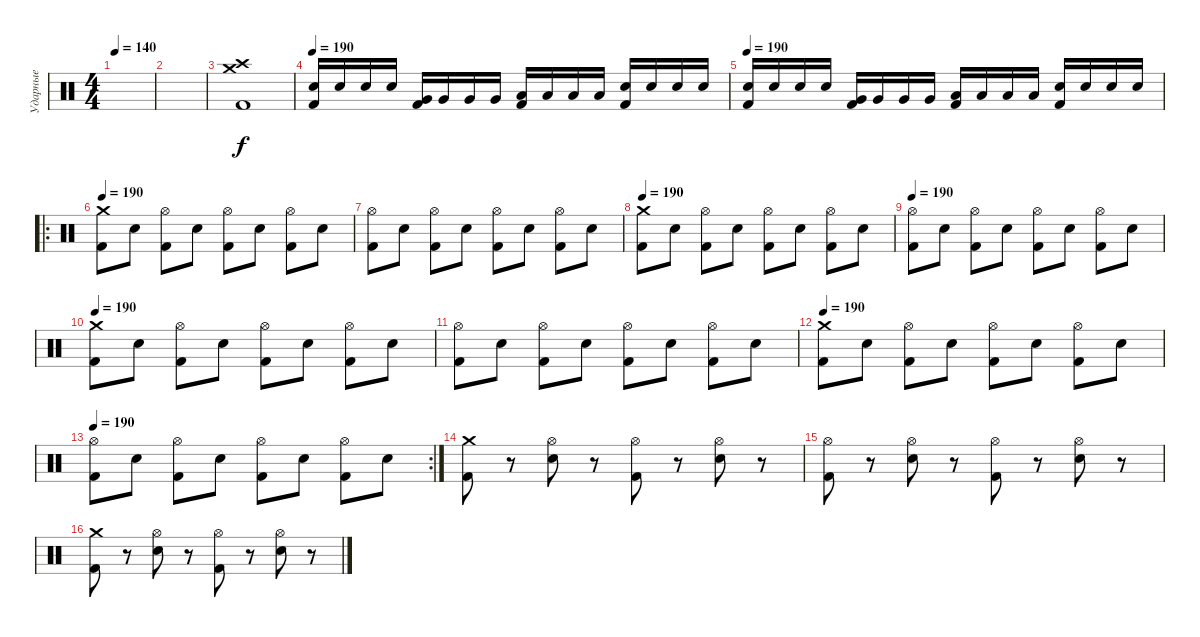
\track ("Ударные" "Ударные") {instrument percussion}
\staff {score}
\articulation defaults
\ts (4 4)
\tempo 140
\clef neutral
\ks c
|
|
("Crash high (hit)" "Crash medium (hit)" "Kick (hit) 2").1 |
\tempo 190
("Electric Snare (hit)" "Kick (hit) 2").16 "Electric Snare (hit)".16 "Electric Snare (hit)".16 "Electric Snare (hit)".16 ("Very Low Tom (hit)" "Kick (hit) 2").16 "Very Low Tom (hit)".16 "Very Low Tom (hit)".16 "Very Low Tom (hit)".16 ("Low Tom (hit)" "Kick (hit) 2").16 "Low Tom (hit)".16 "Low Tom (hit)".16 "Low Tom (hit)".16 ("Electric Snare (hit)" "Kick (hit) 2").16 "Electric Snare (hit)".16 "Electric Snare (hit)".16 "Electric Snare (hit)".16 |
\tempo 190
("Electric Snare (hit)" "Kick (hit) 2").16 "Electric Snare (hit)".16 "Electric Snare (hit)".16 "Electric Snare (hit)".16 ("Very Low Tom (hit)" "Kick (hit) 2").16 "Very Low Tom (hit)".16 "Very Low Tom (hit)".16 "Very Low Tom (hit)".16 ("Low Tom (hit)" "Kick (hit) 2").16 "Low Tom (hit)".16 "Low Tom (hit)".16 "Low Tom (hit)".16 ("Electric Snare (hit)" "Kick (hit) 2").16 "Electric Snare (hit)".16 "Electric Snare (hit)".16 "Electric Snare (hit)".16 |
\ro
\tempo 190
("Crash medium (hit)" "Kick (hit) 2").8 "Electric Snare (hit)".8 ("Hi-Hat (open)" "Kick (hit) 2").8 "Electric Snare (hit)".8 ("Hi-Hat (open)" "Kick (hit) 2").8 "Electric Snare (hit)".8 ("Hi-Hat (open)" "Kick (hit) 2").8 "Electric Snare (hit)".8 |
("Hi-Hat (open)" "Kick (hit) 2").8 "Electric Snare (hit)".8 ("Hi-Hat (open)" "Kick (hit) 2").8 "Electric Snare (hit)".8 ("Hi-Hat (open)" "Kick (hit) 2").8 "Electric Snare (hit)".8 ("Hi-Hat (open)" "Kick (hit) 2").8 "Electric Snare (hit)".8 |
\tempo 190
("Crash medium (hit)" "Kick (hit) 2").8 "Electric Snare (hit)".8 ("Hi-Hat (open)" "Kick (hit) 2").8 "Electric Snare (hit)".8 ("Hi-Hat (open)" "Kick (hit) 2").8 "Electric Snare (hit)".8 ("Hi-Hat (open)" "Kick (hit) 2").8 "Electric Snare (hit)".8 |
\tempo 190
("Hi-Hat (open)" "Kick (hit) 2").8 "Electric Snare (hit)".8 ("Hi-Hat (open)" "Kick (hit) 2").8 "Electric Snare (hit)".8 ("Hi-Hat (open)" "Kick (hit) 2").8 "Electric Snare (hit)".8 ("Hi-Hat (open)" "Kick (hit) 2").8 "Electric Snare (hit)".8 |
\tempo 190
("Crash medium (hit)" "Kick (hit) 2").8 "Electric Snare (hit)".8 ("Hi-Hat (open)" "Kick (hit) 2").8 "Electric Snare (hit)".8 ("Hi-Hat (open)" "Kick (hit) 2").8 "Electric Snare (hit)".8 ("Hi-Hat (open)" "Kick (hit) 2").8 "Electric Snare (hit)".8 |
("Hi-Hat (open)" "Kick (hit) 2").8 "Electric Snare (hit)".8 ("Hi-Hat (open)" "Kick (hit) 2").8 "Electric Snare (hit)".8 ("Hi-Hat (open)" "Kick (hit) 2").8 "Electric Snare (hit)".8 ("Hi-Hat (open)" "Kick (hit) 2").8 "Electric Snare (hit)".8 |
\tempo 190
("Crash medium (hit)" "Kick (hit) 2").8 "Electric Snare (hit)".8 ("Hi-Hat (open)" "Kick (hit) 2").8 "Electric Snare (hit)".8 ("Hi-Hat (open)" "Kick (hit) 2").8 "Electric Snare (hit)".8 ("Hi-Hat (open)" "Kick (hit) 2").8 "Electric Snare (hit)".8 |
\rc 2
\tempo 190
("Hi-Hat (open)" "Kick (hit) 2").8 "Electric Snare (hit)".8 ("Hi-Hat (open)" "Kick (hit) 2").8 "Electric Snare (hit)".8 ("Hi-Hat (open)" "Kick (hit) 2").8 "Electric Snare (hit)".8 ("Hi-Hat (open)" "Kick (hit) 2").8 "Electric Snare (hit)".8 |
("Crash medium (hit)" "Kick (hit) 2").8 r.8 ("Hi-Hat (open)" "Electric Snare (hit)").8 r.8 ("Hi-Hat (open)" "Kick (hit) 2").8 r.8 ("Hi-Hat (open)" "Electric Snare (hit)").8 r.8 |
("Hi-Hat (open)" "Kick (hit) 2").8 r.8 ("Hi-Hat (open)" "Electric Snare (hit)").8 r.8 ("Hi-Hat (open)" "Kick (hit) 2").8 r.8 ("Hi-Hat (open)" "Electric Snare (hit)").8 r.8 |
("Crash medium (hit)" "Kick (hit) 2").8 r.8 ("Hi-Hat (open)" "Electric Snare (hit)").8 r.8 ("Hi-Hat (open)" "Kick (hit) 2").8 r.8 ("Hi-Hat (open)" "Electric Snare (hit)").8 r.8
